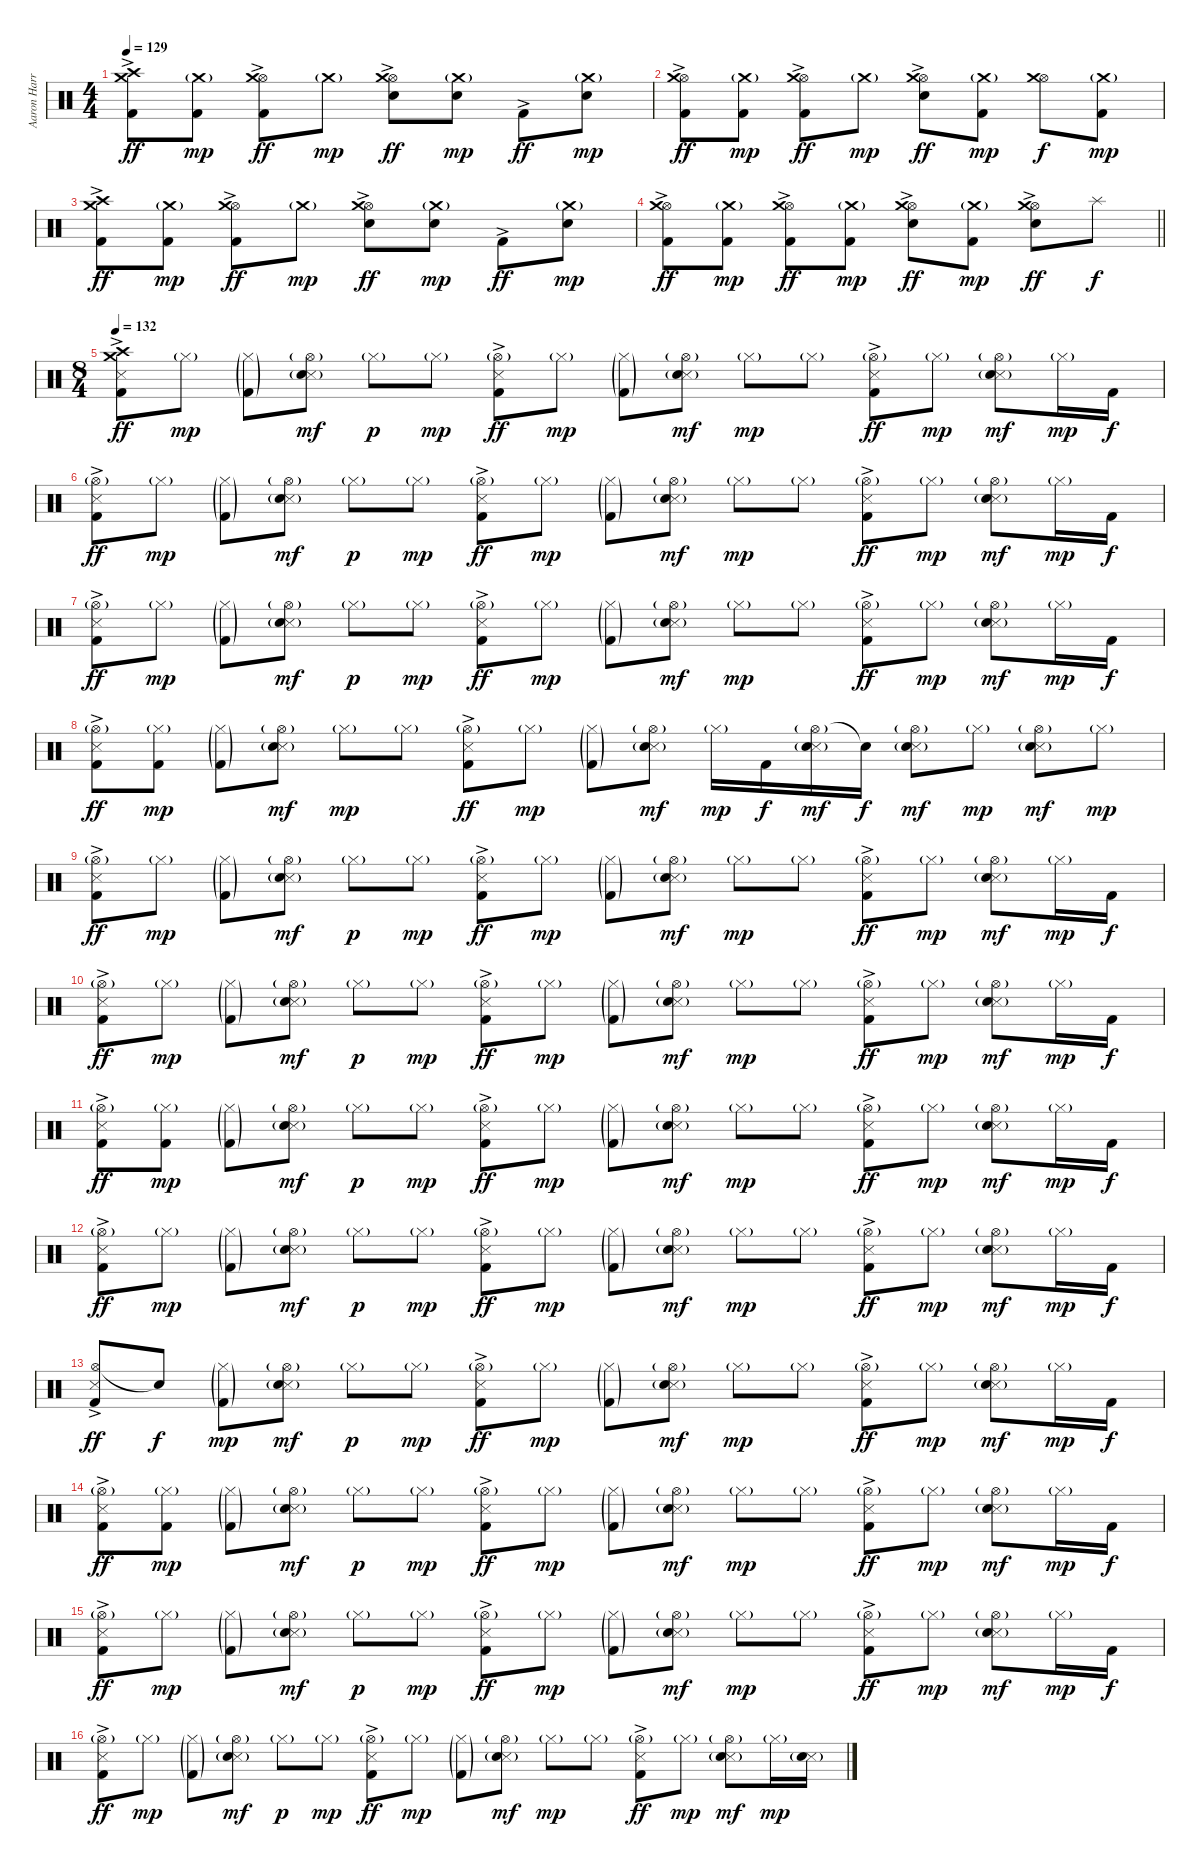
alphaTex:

\track ("Aaron Harris" "Aaron Harr") {instrument percussion}
\staff {score}
\articulation defaults
\ts (4 4)
\tempo 129
\clef neutral
\ks c
("Crash high (hit)" "Crash medium (hit)" "Kick (hit) 2"{ac}).8{dy ff} ("Crash medium (hit)"{g} "Kick (hit) 2").8{dy mp} ("Hi-Hat (open)" "Crash medium (hit)" "Kick (hit) 2"{ac}).8{dy ff} "Crash medium (hit)"{g}.8{dy mp} ("Hi-Hat (open)" "Crash medium (hit)" "Snare (hit) 2"{ac}).8{dy ff} ("Crash medium (hit)"{g} "Snare (hit) 2").8{dy mp} "Kick (hit) 2"{ac}.8{dy ff} ("Crash medium (hit)"{g} "Snare (hit) 2").8{dy mp} |
("Hi-Hat (open)" "Crash medium (hit)" "Kick (hit) 2"{ac}).8{dy ff} ("Crash medium (hit)"{g} "Kick (hit) 2").8{dy mp} ("Hi-Hat (open)" "Crash medium (hit)" "Kick (hit) 2"{ac}).8{dy ff} "Crash medium (hit)"{g}.8{dy mp} ("Hi-Hat (open)" "Crash medium (hit)" "Snare (hit) 2"{ac}).8{dy ff} ("Crash medium (hit)"{g} "Kick (hit) 2").8{dy mp} ("Hi-Hat (open)" "Crash medium (hit)").8{dy f} ("Crash medium (hit)"{g} "Kick (hit) 2").8{dy mp} |
("Crash high (hit)" "Crash medium (hit)" "Kick (hit) 2"{ac}).8{dy ff} ("Crash medium (hit)"{g} "Kick (hit) 2").8{dy mp} ("Hi-Hat (open)" "Crash medium (hit)" "Kick (hit) 2"{ac}).8{dy ff} "Crash medium (hit)"{g}.8{dy mp} ("Hi-Hat (open)" "Crash medium (hit)" "Snare (hit) 2"{ac}).8{dy ff} ("Crash medium (hit)"{g} "Snare (hit) 2").8{dy mp} "Kick (hit) 2"{ac}.8{dy ff} ("Crash medium (hit)"{g} "Snare (hit) 2").8{dy mp} |
\barLineRight lightlight
("Hi-Hat (open)" "Crash medium (hit)" "Kick (hit) 2"{ac}).8{dy ff} ("Crash medium (hit)"{g} "Kick (hit) 2").8{dy mp} ("Hi-Hat (open)" "Crash medium (hit)" "Kick (hit) 2"{ac}).8{dy ff} ("Crash medium (hit)"{g} "Kick (hit) 2").8{dy mp} ("Hi-Hat (open)" "Crash medium (hit)" "Snare (hit) 2"{ac}).8{dy ff} ("Crash medium (hit)"{g} "Kick (hit) 2").8{dy mp} ("Hi-Hat (open)" "Crash medium (hit)" "Snare (hit) 2"{ac}).8{dy ff} "Splash (hit)".8{dy f} |
\ts (8 4)
\tempo 132
("Crash high (hit)" "Crash medium (hit)" "Snare (side stick) 3" "Kick (hit) 2"{ac}).8{dy ff} "Hi-Hat (closed)"{g}.8{dy mp} ("Hi-Hat (closed)"{g} "Kick (hit) 2"{g}).8 ("Hi-Hat (open)"{g} "Snare (side stick) 3" "Snare (hit) 2"{g}).8{dy mf} "Hi-Hat (closed)"{g}.8{dy p} "Hi-Hat (closed)"{g}.8{dy mp} ("Hi-Hat (open)"{g} "Snare (side stick) 3" "Kick (hit) 2"{ac}).8{dy ff} "Hi-Hat (closed)"{g}.8{dy mp} ("Hi-Hat (closed)"{g} "Kick (hit) 2"{g}).8 ("Hi-Hat (open)"{g} "Snare (side stick) 3" "Snare (hit) 2"{g}).8{dy mf} "Hi-Hat (closed)"{g}.8{dy mp} "Hi-Hat (closed)"{g}.8 ("Hi-Hat (open)"{g} "Snare (side stick) 3" "Kick (hit) 2"{ac}).8{dy ff} "Hi-Hat (closed)"{g}.8{dy mp} ("Hi-Hat (open)"{g} "Snare (side stick) 3" "Snare (hit) 2"{g}).8{dy mf} "Hi-Hat (closed)"{g}.16{dy mp} "Kick (hit) 2".16{dy f} |
("Hi-Hat (open)"{g} "Snare (side stick) 3" "Kick (hit) 2"{ac}).8{dy ff} "Hi-Hat (closed)"{g}.8{dy mp} ("Hi-Hat (closed)"{g} "Kick (hit) 2"{g}).8 ("Hi-Hat (open)"{g} "Snare (side stick) 3" "Snare (hit) 2"{g}).8{dy mf} "Hi-Hat (closed)"{g}.8{dy p} "Hi-Hat (closed)"{g}.8{dy mp} ("Hi-Hat (open)"{g} "Snare (side stick) 3" "Kick (hit) 2"{ac}).8{dy ff} "Hi-Hat (closed)"{g}.8{dy mp} ("Hi-Hat (closed)"{g} "Kick (hit) 2"{g}).8 ("Hi-Hat (open)"{g} "Snare (side stick) 3" "Snare (hit) 2"{g}).8{dy mf} "Hi-Hat (closed)"{g}.8{dy mp} "Hi-Hat (closed)"{g}.8 ("Hi-Hat (open)"{g} "Snare (side stick) 3" "Kick (hit) 2"{ac}).8{dy ff} "Hi-Hat (closed)"{g}.8{dy mp} ("Hi-Hat (open)"{g} "Snare (side stick) 3" "Snare (hit) 2"{g}).8{dy mf} "Hi-Hat (closed)"{g}.16{dy mp} "Kick (hit) 2".16{dy f} |
("Hi-Hat (open)"{g} "Snare (side stick) 3" "Kick (hit) 2"{ac}).8{dy ff} "Hi-Hat (closed)"{g}.8{dy mp} ("Hi-Hat (closed)"{g} "Kick (hit) 2"{g}).8 ("Hi-Hat (open)"{g} "Snare (side stick) 3" "Snare (hit) 2"{g}).8{dy mf} "Hi-Hat (closed)"{g}.8{dy p} "Hi-Hat (closed)"{g}.8{dy mp} ("Hi-Hat (open)"{g} "Snare (side stick) 3" "Kick (hit) 2"{ac}).8{dy ff} "Hi-Hat (closed)"{g}.8{dy mp} ("Hi-Hat (closed)"{g} "Kick (hit) 2"{g}).8 ("Hi-Hat (open)"{g} "Snare (side stick) 3" "Snare (hit) 2"{g}).8{dy mf} "Hi-Hat (closed)"{g}.8{dy mp} "Hi-Hat (closed)"{g}.8 ("Hi-Hat (open)"{g} "Snare (side stick) 3" "Kick (hit) 2"{ac}).8{dy ff} "Hi-Hat (closed)"{g}.8{dy mp} ("Hi-Hat (open)"{g} "Snare (side stick) 3" "Snare (hit) 2"{g}).8{dy mf} "Hi-Hat (closed)"{g}.16{dy mp} "Kick (hit) 2".16{dy f} |
("Hi-Hat (open)"{g} "Snare (side stick) 3" "Kick (hit) 2"{ac}).8{dy ff} ("Hi-Hat (closed)"{g} "Kick (hit) 2").8{dy mp} ("Hi-Hat (closed)"{g} "Kick (hit) 2"{g}).8 ("Hi-Hat (open)"{g} "Snare (side stick) 3" "Snare (hit) 2"{g}).8{dy mf} "Hi-Hat (closed)"{g}.8{dy mp} "Hi-Hat (closed)"{g}.8 ("Hi-Hat (open)"{g} "Snare (side stick) 3" "Kick (hit) 2"{ac}).8{dy ff} "Hi-Hat (closed)"{g}.8{dy mp} ("Hi-Hat (closed)"{g} "Kick (hit) 2"{g}).8 ("Hi-Hat (open)"{g} "Snare (side stick) 3" "Snare (hit) 2"{g}).8{dy mf} "Hi-Hat (closed)"{g}.16{dy mp} "Kick (hit) 2".16{dy f} ("Hi-Hat (open)"{g} "Snare (side stick) 3" "Snare (hit) 2"{g}).16{dy mf} "Snare (hit)"{t}.16{dy f} ("Hi-Hat (open)"{g} "Snare (side stick) 3" "Snare (hit) 2"{g}).8{dy mf} "Hi-Hat (closed)"{g}.8{dy mp} ("Hi-Hat (open)"{g} "Snare (side stick) 3" "Snare (hit) 2"{g}).8{dy mf} "Hi-Hat (closed)"{g}.8{dy mp} |
("Hi-Hat (open)"{g} "Snare (side stick) 3" "Kick (hit) 2"{ac}).8{dy ff} "Hi-Hat (closed)"{g}.8{dy mp} ("Hi-Hat (closed)"{g} "Kick (hit) 2"{g}).8 ("Hi-Hat (open)"{g} "Snare (side stick) 3" "Snare (hit) 2"{g}).8{dy mf} "Hi-Hat (closed)"{g}.8{dy p} "Hi-Hat (closed)"{g}.8{dy mp} ("Hi-Hat (open)"{g} "Snare (side stick) 3" "Kick (hit) 2"{ac}).8{dy ff} "Hi-Hat (closed)"{g}.8{dy mp} ("Hi-Hat (closed)"{g} "Kick (hit) 2"{g}).8 ("Hi-Hat (open)"{g} "Snare (side stick) 3" "Snare (hit) 2"{g}).8{dy mf} "Hi-Hat (closed)"{g}.8{dy mp} "Hi-Hat (closed)"{g}.8 ("Hi-Hat (open)"{g} "Snare (side stick) 3" "Kick (hit) 2"{ac}).8{dy ff} "Hi-Hat (closed)"{g}.8{dy mp} ("Hi-Hat (open)"{g} "Snare (side stick) 3" "Snare (hit) 2"{g}).8{dy mf} "Hi-Hat (closed)"{g}.16{dy mp} "Kick (hit) 2".16{dy f} |
("Hi-Hat (open)"{g} "Snare (side stick) 3" "Kick (hit) 2"{ac}).8{dy ff} "Hi-Hat (closed)"{g}.8{dy mp} ("Hi-Hat (closed)"{g} "Kick (hit) 2"{g}).8 ("Hi-Hat (open)"{g} "Snare (side stick) 3" "Snare (hit) 2"{g}).8{dy mf} "Hi-Hat (closed)"{g}.8{dy p} "Hi-Hat (closed)"{g}.8{dy mp} ("Hi-Hat (open)"{g} "Snare (side stick) 3" "Kick (hit) 2"{ac}).8{dy ff} "Hi-Hat (closed)"{g}.8{dy mp} ("Hi-Hat (closed)"{g} "Kick (hit) 2"{g}).8 ("Hi-Hat (open)"{g} "Snare (side stick) 3" "Snare (hit) 2"{g}).8{dy mf} "Hi-Hat (closed)"{g}.8{dy mp} "Hi-Hat (closed)"{g}.8 ("Hi-Hat (open)"{g} "Snare (side stick) 3" "Kick (hit) 2"{ac}).8{dy ff} "Hi-Hat (closed)"{g}.8{dy mp} ("Hi-Hat (open)"{g} "Snare (side stick) 3" "Snare (hit) 2"{g}).8{dy mf} "Hi-Hat (closed)"{g}.16{dy mp} "Kick (hit) 2".16{dy f} |
("Hi-Hat (open)"{g} "Snare (side stick) 3" "Kick (hit) 2"{ac}).8{dy ff} ("Hi-Hat (closed)"{g} "Kick (hit) 2").8{dy mp} ("Hi-Hat (closed)"{g} "Kick (hit) 2"{g}).8 ("Hi-Hat (open)"{g} "Snare (side stick) 3" "Snare (hit) 2"{g}).8{dy mf} "Hi-Hat (closed)"{g}.8{dy p} "Hi-Hat (closed)"{g}.8{dy mp} ("Hi-Hat (open)"{g} "Snare (side stick) 3" "Kick (hit) 2"{ac}).8{dy ff} "Hi-Hat (closed)"{g}.8{dy mp} ("Hi-Hat (closed)"{g} "Kick (hit) 2"{g}).8 ("Hi-Hat (open)"{g} "Snare (side stick) 3" "Snare (hit) 2"{g}).8{dy mf} "Hi-Hat (closed)"{g}.8{dy mp} "Hi-Hat (closed)"{g}.8 ("Hi-Hat (open)"{g} "Snare (side stick) 3" "Kick (hit) 2"{ac}).8{dy ff} "Hi-Hat (closed)"{g}.8{dy mp} ("Hi-Hat (open)"{g} "Snare (side stick) 3" "Snare (hit) 2"{g}).8{dy mf} "Hi-Hat (closed)"{g}.16{dy mp} "Kick (hit) 2".16{dy f} |
("Hi-Hat (open)"{g} "Snare (side stick) 3" "Kick (hit) 2"{ac}).8{dy ff} "Hi-Hat (closed)"{g}.8{dy mp} ("Hi-Hat (closed)"{g} "Kick (hit) 2"{g}).8 ("Hi-Hat (open)"{g} "Snare (side stick) 3" "Snare (hit) 2"{g}).8{dy mf} "Hi-Hat (closed)"{g}.8{dy p} "Hi-Hat (closed)"{g}.8{dy mp} ("Hi-Hat (open)"{g} "Snare (side stick) 3" "Kick (hit) 2"{ac}).8{dy ff} "Hi-Hat (closed)"{g}.8{dy mp} ("Hi-Hat (closed)"{g} "Kick (hit) 2"{g}).8 ("Hi-Hat (open)"{g} "Snare (side stick) 3" "Snare (hit) 2"{g}).8{dy mf} "Hi-Hat (closed)"{g}.8{dy mp} "Hi-Hat (closed)"{g}.8 ("Hi-Hat (open)"{g} "Snare (side stick) 3" "Kick (hit) 2"{ac}).8{dy ff} "Hi-Hat (closed)"{g}.8{dy mp} ("Hi-Hat (open)"{g} "Snare (side stick) 3" "Snare (hit) 2"{g}).8{dy mf} "Hi-Hat (closed)"{g}.16{dy mp} "Kick (hit) 2".16{dy f} |
("Hi-Hat (open)" "Snare (side stick) 3" "Kick (hit) 2"{ac}).8{dy ff} "Snare (hit)"{t}.8{dy f} ("Hi-Hat (closed)"{g} "Kick (hit) 2"{g}).8{dy mp} ("Hi-Hat (open)"{g} "Snare (side stick) 3" "Snare (hit) 2"{g}).8{dy mf} "Hi-Hat (closed)"{g}.8{dy p} "Hi-Hat (closed)"{g}.8{dy mp} ("Hi-Hat (open)"{g} "Snare (side stick) 3" "Kick (hit) 2"{ac}).8{dy ff} "Hi-Hat (closed)"{g}.8{dy mp} ("Hi-Hat (closed)"{g} "Kick (hit) 2"{g}).8 ("Hi-Hat (open)"{g} "Snare (side stick) 3" "Snare (hit) 2"{g}).8{dy mf} "Hi-Hat (closed)"{g}.8{dy mp} "Hi-Hat (closed)"{g}.8 ("Hi-Hat (open)"{g} "Snare (side stick) 3" "Kick (hit) 2"{ac}).8{dy ff} "Hi-Hat (closed)"{g}.8{dy mp} ("Hi-Hat (open)"{g} "Snare (side stick) 3" "Snare (hit) 2"{g}).8{dy mf} "Hi-Hat (closed)"{g}.16{dy mp} "Kick (hit) 2".16{dy f} |
("Hi-Hat (open)"{g} "Snare (side stick) 3" "Kick (hit) 2"{ac}).8{dy ff} ("Hi-Hat (closed)"{g} "Kick (hit) 2").8{dy mp} ("Hi-Hat (closed)"{g} "Kick (hit) 2"{g}).8 ("Hi-Hat (open)"{g} "Snare (side stick) 3" "Snare (hit) 2"{g}).8{dy mf} "Hi-Hat (closed)"{g}.8{dy p} "Hi-Hat (closed)"{g}.8{dy mp} ("Hi-Hat (open)"{g} "Snare (side stick) 3" "Kick (hit) 2"{ac}).8{dy ff} "Hi-Hat (closed)"{g}.8{dy mp} ("Hi-Hat (closed)"{g} "Kick (hit) 2"{g}).8 ("Hi-Hat (open)"{g} "Snare (side stick) 3" "Snare (hit) 2"{g}).8{dy mf} "Hi-Hat (closed)"{g}.8{dy mp} "Hi-Hat (closed)"{g}.8 ("Hi-Hat (open)"{g} "Snare (side stick) 3" "Kick (hit) 2"{ac}).8{dy ff} "Hi-Hat (closed)"{g}.8{dy mp} ("Hi-Hat (open)"{g} "Snare (side stick) 3" "Snare (hit) 2"{g}).8{dy mf} "Hi-Hat (closed)"{g}.16{dy mp} "Kick (hit) 2".16{dy f} |
("Hi-Hat (open)"{g} "Snare (side stick) 3" "Kick (hit) 2"{ac}).8{dy ff} "Hi-Hat (closed)"{g}.8{dy mp} ("Hi-Hat (closed)"{g} "Kick (hit) 2"{g}).8 ("Hi-Hat (open)"{g} "Snare (side stick) 3" "Snare (hit) 2"{g}).8{dy mf} "Hi-Hat (closed)"{g}.8{dy p} "Hi-Hat (closed)"{g}.8{dy mp} ("Hi-Hat (open)"{g} "Snare (side stick) 3" "Kick (hit) 2"{ac}).8{dy ff} "Hi-Hat (closed)"{g}.8{dy mp} ("Hi-Hat (closed)"{g} "Kick (hit) 2"{g}).8 ("Hi-Hat (open)"{g} "Snare (side stick) 3" "Snare (hit) 2"{g}).8{dy mf} "Hi-Hat (closed)"{g}.8{dy mp} "Hi-Hat (closed)"{g}.8 ("Hi-Hat (open)"{g} "Snare (side stick) 3" "Kick (hit) 2"{ac}).8{dy ff} "Hi-Hat (closed)"{g}.8{dy mp} ("Hi-Hat (open)"{g} "Snare (side stick) 3" "Snare (hit) 2"{g}).8{dy mf} "Hi-Hat (closed)"{g}.16{dy mp} "Kick (hit) 2".16{dy f} |
("Hi-Hat (open)"{g} "Snare (side stick) 3" "Kick (hit) 2"{ac}).8{dy ff} "Hi-Hat (closed)"{g}.8{dy mp} ("Hi-Hat (closed)"{g} "Kick (hit) 2"{g}).8 ("Hi-Hat (open)"{g} "Snare (side stick) 3" "Snare (hit) 2"{g}).8{dy mf} "Hi-Hat (closed)"{g}.8{dy p} "Hi-Hat (closed)"{g}.8{dy mp} ("Hi-Hat (open)"{g} "Snare (side stick) 3" "Kick (hit) 2"{ac}).8{dy ff} "Hi-Hat (closed)"{g}.8{dy mp} ("Hi-Hat (closed)"{g} "Kick (hit) 2"{g}).8 ("Hi-Hat (open)"{g} "Snare (side stick) 3" "Snare (hit) 2"{g}).8{dy mf} "Hi-Hat (closed)"{g}.8{dy mp} "Hi-Hat (closed)"{g}.8 ("Hi-Hat (open)"{g} "Snare (side stick) 3" "Kick (hit) 2"{ac}).8{dy ff} "Hi-Hat (closed)"{g}.8{dy mp} ("Hi-Hat (open)"{g} "Snare (side stick) 3" "Snare (hit) 2"{g}).8{dy mf} "Hi-Hat (closed)"{g}.16{dy mp} ("Snare (side stick) 3" "Snare (hit) 2"{g}).16
